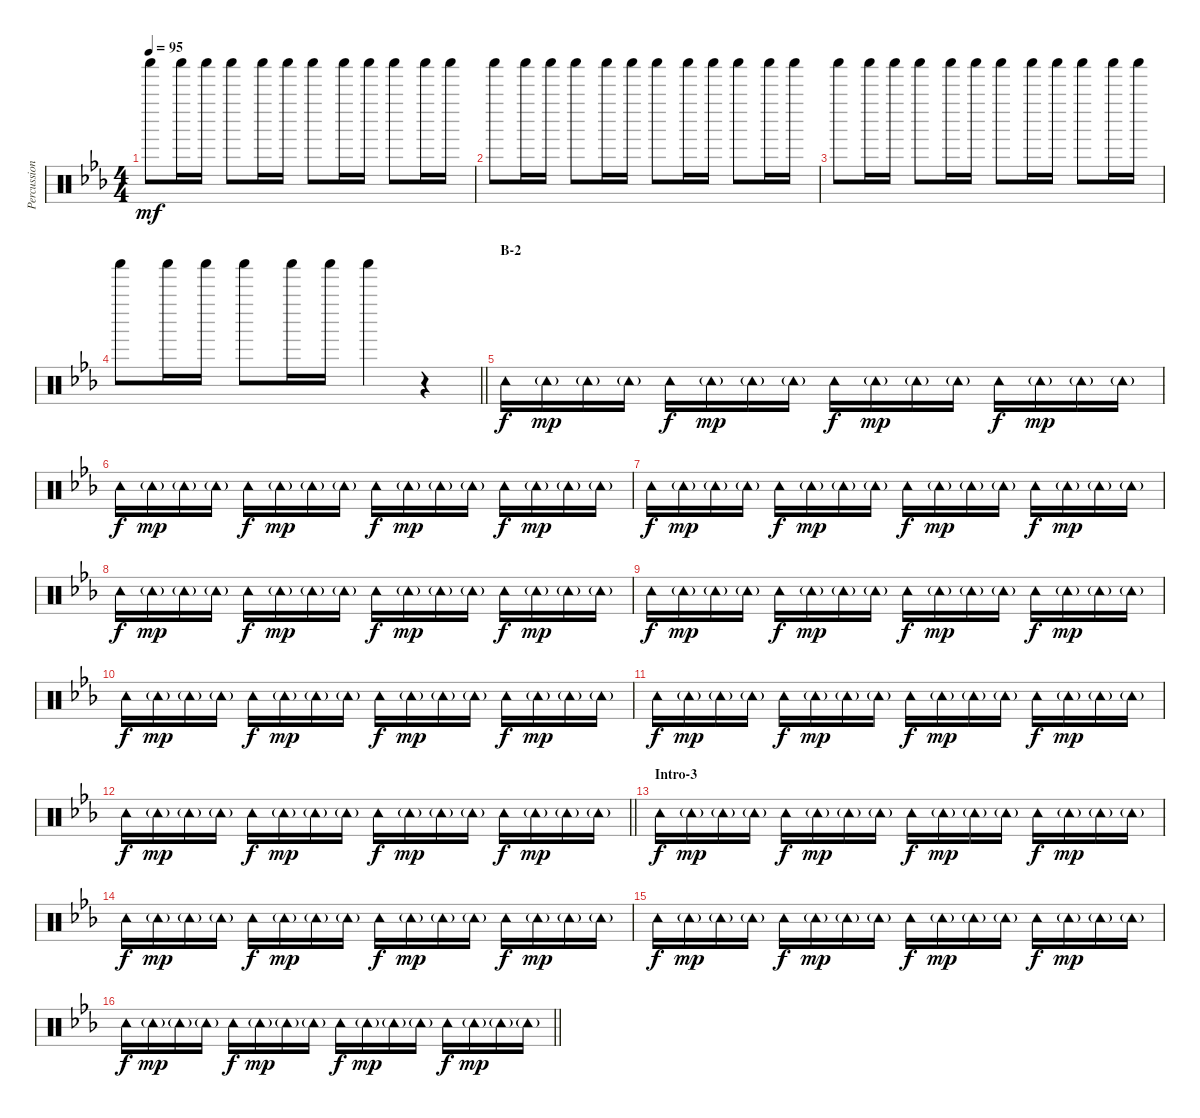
\track ("Percussion" "Percussion") {instrument percussion}
\staff {score}
\articulation defaults
\ts (4 4)
\tempo 95
\clef neutral
\ks cminor "Shaker (hit)".8{dy mf} "Shaker (hit)".16 "Shaker (hit)".16 "Shaker (hit)".8 "Shaker (hit)".16 "Shaker (hit)".16 "Shaker (hit)".8 "Shaker (hit)".16 "Shaker (hit)".16 "Shaker (hit)".8 "Shaker (hit)".16 "Shaker (hit)".16
|
"Shaker (hit)".8 "Shaker (hit)".16 "Shaker (hit)".16 "Shaker (hit)".8 "Shaker (hit)".16 "Shaker (hit)".16 "Shaker (hit)".8 "Shaker (hit)".16 "Shaker (hit)".16 "Shaker (hit)".8 "Shaker (hit)".16 "Shaker (hit)".16 |
"Shaker (hit)".8 "Shaker (hit)".16 "Shaker (hit)".16 "Shaker (hit)".8 "Shaker (hit)".16 "Shaker (hit)".16 "Shaker (hit)".8 "Shaker (hit)".16 "Shaker (hit)".16 "Shaker (hit)".8 "Shaker (hit)".16 "Shaker (hit)".16 |
\barLineRight lightlight "Shaker (hit)".8 "Shaker (hit)".16 "Shaker (hit)".16 "Shaker (hit)".8 "Shaker (hit)".16 "Shaker (hit)".16 "Shaker (hit)".4
r.4 |
\section ("" "B-2")
"Tambourine (hit)".16{dy f} "Tambourine (hit)"{g}.16{dy mp} "Tambourine (hit)"{g}.16 "Tambourine (hit)"{g}.16 "Tambourine (hit)".16{dy f} "Tambourine (hit)"{g}.16{dy mp} "Tambourine (hit)"{g}.16 "Tambourine (hit)"{g}.16 "Tambourine (hit)".16{dy f} "Tambourine (hit)"{g}.16{dy mp} "Tambourine (hit)"{g}.16 "Tambourine (hit)"{g}.16 "Tambourine (hit)".16{dy f} "Tambourine (hit)"{g}.16{dy mp} "Tambourine (hit)"{g}.16 "Tambourine (hit)"{g}.16 |
"Tambourine (hit)".16{dy f} "Tambourine (hit)"{g}.16{dy mp} "Tambourine (hit)"{g}.16 "Tambourine (hit)"{g}.16 "Tambourine (hit)".16{dy f} "Tambourine (hit)"{g}.16{dy mp} "Tambourine (hit)"{g}.16 "Tambourine (hit)"{g}.16 "Tambourine (hit)".16{dy f} "Tambourine (hit)"{g}.16{dy mp} "Tambourine (hit)"{g}.16 "Tambourine (hit)"{g}.16 "Tambourine (hit)".16{dy f} "Tambourine (hit)"{g}.16{dy mp} "Tambourine (hit)"{g}.16 "Tambourine (hit)"{g}.16 |
"Tambourine (hit)".16{dy f} "Tambourine (hit)"{g}.16{dy mp} "Tambourine (hit)"{g}.16 "Tambourine (hit)"{g}.16 "Tambourine (hit)".16{dy f} "Tambourine (hit)"{g}.16{dy mp} "Tambourine (hit)"{g}.16 "Tambourine (hit)"{g}.16 "Tambourine (hit)".16{dy f} "Tambourine (hit)"{g}.16{dy mp} "Tambourine (hit)"{g}.16 "Tambourine (hit)"{g}.16 "Tambourine (hit)".16{dy f} "Tambourine (hit)"{g}.16{dy mp} "Tambourine (hit)"{g}.16 "Tambourine (hit)"{g}.16 |
"Tambourine (hit)".16{dy f} "Tambourine (hit)"{g}.16{dy mp} "Tambourine (hit)"{g}.16 "Tambourine (hit)"{g}.16 "Tambourine (hit)".16{dy f} "Tambourine (hit)"{g}.16{dy mp} "Tambourine (hit)"{g}.16 "Tambourine (hit)"{g}.16 "Tambourine (hit)".16{dy f} "Tambourine (hit)"{g}.16{dy mp} "Tambourine (hit)"{g}.16 "Tambourine (hit)"{g}.16 "Tambourine (hit)".16{dy f} "Tambourine (hit)"{g}.16{dy mp} "Tambourine (hit)"{g}.16 "Tambourine (hit)"{g}.16 |
"Tambourine (hit)".16{dy f} "Tambourine (hit)"{g}.16{dy mp} "Tambourine (hit)"{g}.16 "Tambourine (hit)"{g}.16 "Tambourine (hit)".16{dy f} "Tambourine (hit)"{g}.16{dy mp} "Tambourine (hit)"{g}.16 "Tambourine (hit)"{g}.16 "Tambourine (hit)".16{dy f} "Tambourine (hit)"{g}.16{dy mp} "Tambourine (hit)"{g}.16 "Tambourine (hit)"{g}.16 "Tambourine (hit)".16{dy f} "Tambourine (hit)"{g}.16{dy mp} "Tambourine (hit)"{g}.16 "Tambourine (hit)"{g}.16 |
"Tambourine (hit)".16{dy f} "Tambourine (hit)"{g}.16{dy mp} "Tambourine (hit)"{g}.16 "Tambourine (hit)"{g}.16 "Tambourine (hit)".16{dy f} "Tambourine (hit)"{g}.16{dy mp} "Tambourine (hit)"{g}.16 "Tambourine (hit)"{g}.16 "Tambourine (hit)".16{dy f} "Tambourine (hit)"{g}.16{dy mp} "Tambourine (hit)"{g}.16 "Tambourine (hit)"{g}.16 "Tambourine (hit)".16{dy f} "Tambourine (hit)"{g}.16{dy mp} "Tambourine (hit)"{g}.16 "Tambourine (hit)"{g}.16 |
"Tambourine (hit)".16{dy f} "Tambourine (hit)"{g}.16{dy mp} "Tambourine (hit)"{g}.16 "Tambourine (hit)"{g}.16 "Tambourine (hit)".16{dy f} "Tambourine (hit)"{g}.16{dy mp} "Tambourine (hit)"{g}.16 "Tambourine (hit)"{g}.16 "Tambourine (hit)".16{dy f} "Tambourine (hit)"{g}.16{dy mp} "Tambourine (hit)"{g}.16 "Tambourine (hit)"{g}.16 "Tambourine (hit)".16{dy f} "Tambourine (hit)"{g}.16{dy mp} "Tambourine (hit)"{g}.16 "Tambourine (hit)"{g}.16 |
\barLineRight lightlight "Tambourine (hit)".16{dy f} "Tambourine (hit)"{g}.16{dy mp} "Tambourine (hit)"{g}.16 "Tambourine (hit)"{g}.16 "Tambourine (hit)".16{dy f} "Tambourine (hit)"{g}.16{dy mp} "Tambourine (hit)"{g}.16 "Tambourine (hit)"{g}.16 "Tambourine (hit)".16{dy f} "Tambourine (hit)"{g}.16{dy mp} "Tambourine (hit)"{g}.16 "Tambourine (hit)"{g}.16 "Tambourine (hit)".16{dy f} "Tambourine (hit)"{g}.16{dy mp} "Tambourine (hit)"{g}.16 "Tambourine (hit)"{g}.16
|
\section ("" "Intro-3")
"Tambourine (hit)".16{dy f} "Tambourine (hit)"{g}.16{dy mp} "Tambourine (hit)"{g}.16 "Tambourine (hit)"{g}.16 "Tambourine (hit)".16{dy f} "Tambourine (hit)"{g}.16{dy mp} "Tambourine (hit)"{g}.16 "Tambourine (hit)"{g}.16 "Tambourine (hit)".16{dy f} "Tambourine (hit)"{g}.16{dy mp} "Tambourine (hit)"{g}.16 "Tambourine (hit)"{g}.16 "Tambourine (hit)".16{dy f} "Tambourine (hit)"{g}.16{dy mp} "Tambourine (hit)"{g}.16 "Tambourine (hit)"{g}.16 |
"Tambourine (hit)".16{dy f} "Tambourine (hit)"{g}.16{dy mp} "Tambourine (hit)"{g}.16 "Tambourine (hit)"{g}.16 "Tambourine (hit)".16{dy f} "Tambourine (hit)"{g}.16{dy mp} "Tambourine (hit)"{g}.16 "Tambourine (hit)"{g}.16 "Tambourine (hit)".16{dy f} "Tambourine (hit)"{g}.16{dy mp} "Tambourine (hit)"{g}.16 "Tambourine (hit)"{g}.16 "Tambourine (hit)".16{dy f} "Tambourine (hit)"{g}.16{dy mp} "Tambourine (hit)"{g}.16 "Tambourine (hit)"{g}.16 |
"Tambourine (hit)".16{dy f} "Tambourine (hit)"{g}.16{dy mp} "Tambourine (hit)"{g}.16 "Tambourine (hit)"{g}.16 "Tambourine (hit)".16{dy f} "Tambourine (hit)"{g}.16{dy mp} "Tambourine (hit)"{g}.16 "Tambourine (hit)"{g}.16 "Tambourine (hit)".16{dy f} "Tambourine (hit)"{g}.16{dy mp} "Tambourine (hit)"{g}.16 "Tambourine (hit)"{g}.16 "Tambourine (hit)".16{dy f} "Tambourine (hit)"{g}.16{dy mp} "Tambourine (hit)"{g}.16 "Tambourine (hit)"{g}.16 |
\barLineRight lightlight "Tambourine (hit)".16{dy f} "Tambourine (hit)"{g}.16{dy mp} "Tambourine (hit)"{g}.16 "Tambourine (hit)"{g}.16 "Tambourine (hit)".16{dy f} "Tambourine (hit)"{g}.16{dy mp} "Tambourine (hit)"{g}.16 "Tambourine (hit)"{g}.16 "Tambourine (hit)".16{dy f} "Tambourine (hit)"{g}.16{dy mp} "Tambourine (hit)"{g}.16 "Tambourine (hit)"{g}.16 "Tambourine (hit)".16{dy f} "Tambourine (hit)"{g}.16{dy mp} "Tambourine (hit)"{g}.16 "Tambourine (hit)"{g}.16
